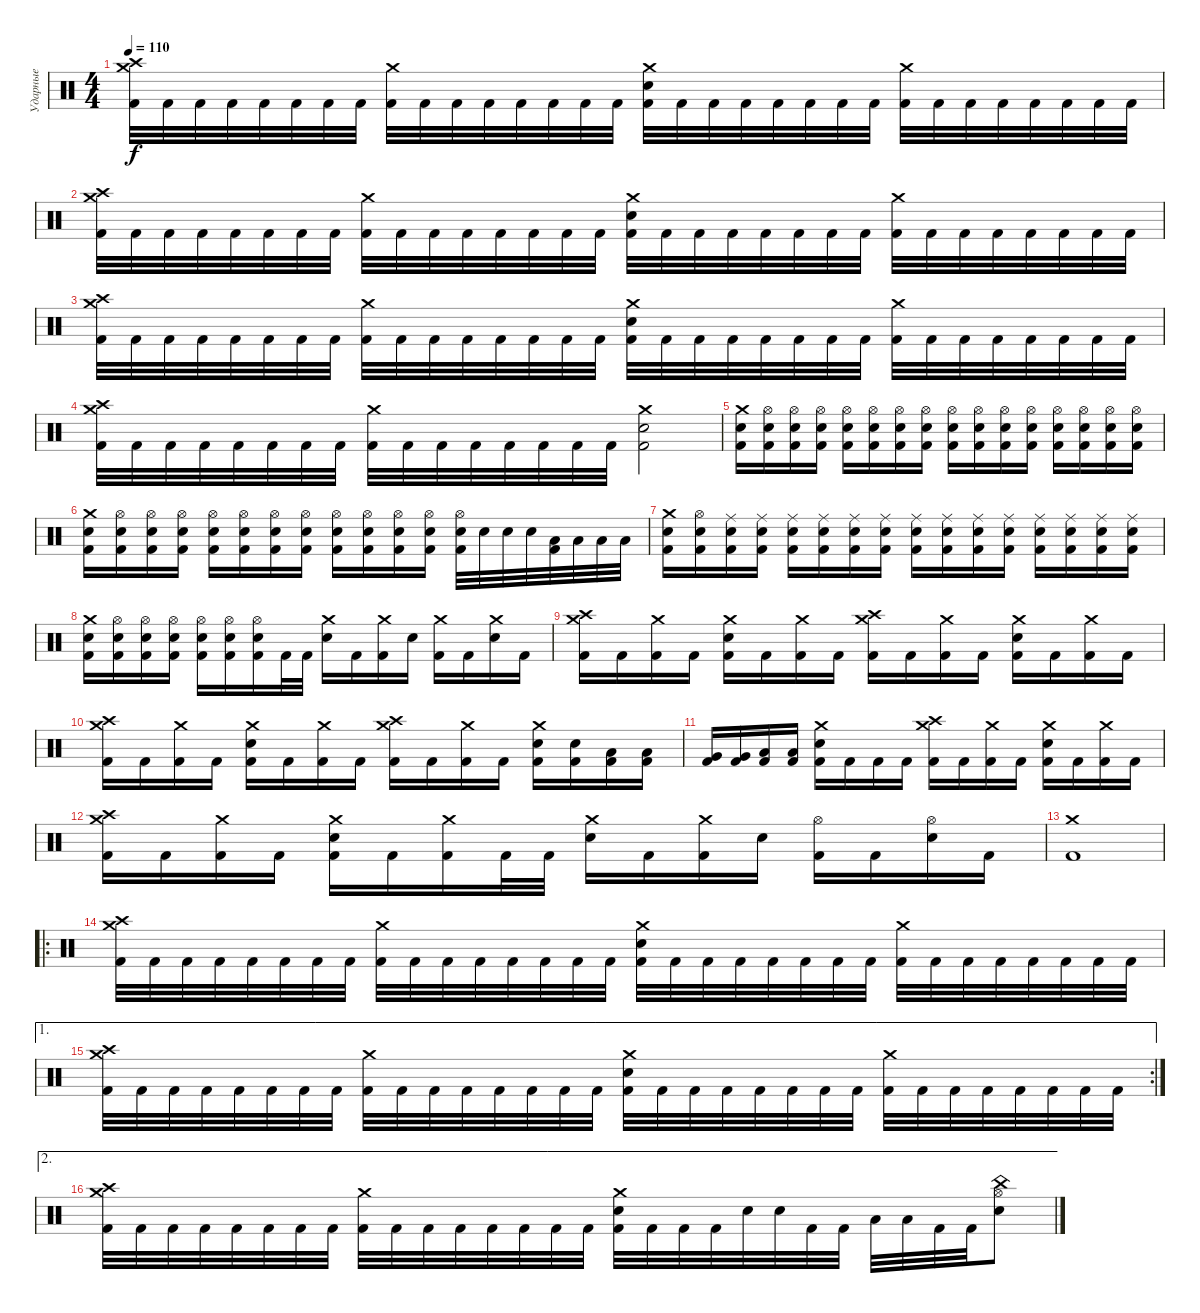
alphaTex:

\track ("Ударные" "Ударные") {instrument percussion}
\staff {score}
\articulation defaults
\ts (4 4)
\tempo 110
\clef neutral
\ks c
("Crash medium (hit)" "Crash high (hit)" "Kick (hit) 2").32{dy f} "Kick (hit) 2".32 "Kick (hit) 2".32 "Kick (hit) 2".32 "Kick (hit) 2".32 "Kick (hit) 2".32 "Kick (hit) 2".32 "Kick (hit) 2".32 ("Crash medium (hit)" "Kick (hit) 2").32 "Kick (hit) 2".32 "Kick (hit) 2".32 "Kick (hit) 2".32 "Kick (hit) 2".32 "Kick (hit) 2".32 "Kick (hit) 2".32 "Kick (hit) 2".32 ("Crash medium (hit)" "Electric Snare (hit)" "Kick (hit) 2").32 "Kick (hit) 2".32 "Kick (hit) 2".32 "Kick (hit) 2".32 "Kick (hit) 2".32 "Kick (hit) 2".32 "Kick (hit) 2".32 "Kick (hit) 2".32 ("Crash medium (hit)" "Kick (hit) 2").32 "Kick (hit) 2".32 "Kick (hit) 2".32 "Kick (hit) 2".32 "Kick (hit) 2".32 "Kick (hit) 2".32 "Kick (hit) 2".32 "Kick (hit) 2".32 |
("Crash medium (hit)" "Crash high (hit)" "Kick (hit) 2").32 "Kick (hit) 2".32 "Kick (hit) 2".32 "Kick (hit) 2".32 "Kick (hit) 2".32 "Kick (hit) 2".32 "Kick (hit) 2".32 "Kick (hit) 2".32 ("Crash medium (hit)" "Kick (hit) 2").32 "Kick (hit) 2".32 "Kick (hit) 2".32 "Kick (hit) 2".32 "Kick (hit) 2".32 "Kick (hit) 2".32 "Kick (hit) 2".32 "Kick (hit) 2".32 ("Crash medium (hit)" "Electric Snare (hit)" "Kick (hit) 2").32 "Kick (hit) 2".32 "Kick (hit) 2".32 "Kick (hit) 2".32 "Kick (hit) 2".32 "Kick (hit) 2".32 "Kick (hit) 2".32 "Kick (hit) 2".32 ("Crash medium (hit)" "Kick (hit) 2").32 "Kick (hit) 2".32 "Kick (hit) 2".32 "Kick (hit) 2".32 "Kick (hit) 2".32 "Kick (hit) 2".32 "Kick (hit) 2".32 "Kick (hit) 2".32 |
("Crash medium (hit)" "Crash high (hit)" "Kick (hit) 2").32 "Kick (hit) 2".32 "Kick (hit) 2".32 "Kick (hit) 2".32 "Kick (hit) 2".32 "Kick (hit) 2".32 "Kick (hit) 2".32 "Kick (hit) 2".32 ("Crash medium (hit)" "Kick (hit) 2").32 "Kick (hit) 2".32 "Kick (hit) 2".32 "Kick (hit) 2".32 "Kick (hit) 2".32 "Kick (hit) 2".32 "Kick (hit) 2".32 "Kick (hit) 2".32 ("Crash medium (hit)" "Electric Snare (hit)" "Kick (hit) 2").32 "Kick (hit) 2".32 "Kick (hit) 2".32 "Kick (hit) 2".32 "Kick (hit) 2".32 "Kick (hit) 2".32 "Kick (hit) 2".32 "Kick (hit) 2".32 ("Crash medium (hit)" "Kick (hit) 2").32 "Kick (hit) 2".32 "Kick (hit) 2".32 "Kick (hit) 2".32 "Kick (hit) 2".32 "Kick (hit) 2".32 "Kick (hit) 2".32 "Kick (hit) 2".32 |
("Crash medium (hit)" "Crash high (hit)" "Kick (hit) 2").32 "Kick (hit) 2".32 "Kick (hit) 2".32 "Kick (hit) 2".32 "Kick (hit) 2".32 "Kick (hit) 2".32 "Kick (hit) 2".32 "Kick (hit) 2".32 ("Crash medium (hit)" "Kick (hit) 2").32 "Kick (hit) 2".32 "Kick (hit) 2".32 "Kick (hit) 2".32 "Kick (hit) 2".32 "Kick (hit) 2".32 "Kick (hit) 2".32 "Kick (hit) 2".32 ("Crash medium (hit)" "Electric Snare (hit)" "Kick (hit) 2").2 |
("Crash medium (hit)" "Electric Snare (hit)" "Kick (hit) 2").16 ("Hi-Hat (open)" "Electric Snare (hit)" "Kick (hit) 2").16 ("Hi-Hat (open)" "Electric Snare (hit)" "Kick (hit) 2").16 ("Hi-Hat (open)" "Electric Snare (hit)" "Kick (hit) 2").16 ("Hi-Hat (open)" "Electric Snare (hit)" "Kick (hit) 2").16 ("Hi-Hat (open)" "Electric Snare (hit)" "Kick (hit) 2").16 ("Hi-Hat (open)" "Electric Snare (hit)" "Kick (hit) 2").16 ("Hi-Hat (open)" "Electric Snare (hit)" "Kick (hit) 2").16 ("Hi-Hat (open)" "Electric Snare (hit)" "Kick (hit) 2").16 ("Hi-Hat (open)" "Electric Snare (hit)" "Kick (hit) 2").16 ("Hi-Hat (open)" "Electric Snare (hit)" "Kick (hit) 2").16 ("Hi-Hat (open)" "Electric Snare (hit)" "Kick (hit) 2").16 ("Hi-Hat (open)" "Electric Snare (hit)" "Kick (hit) 2").16 ("Hi-Hat (open)" "Electric Snare (hit)" "Kick (hit) 2").16 ("Hi-Hat (open)" "Electric Snare (hit)" "Kick (hit) 2").16 ("Hi-Hat (open)" "Electric Snare (hit)" "Kick (hit) 2").16 |
("Crash medium (hit)" "Electric Snare (hit)" "Kick (hit) 2").16 ("Hi-Hat (open)" "Electric Snare (hit)" "Kick (hit) 2").16 ("Hi-Hat (open)" "Electric Snare (hit)" "Kick (hit) 2").16 ("Hi-Hat (open)" "Electric Snare (hit)" "Kick (hit) 2").16 ("Hi-Hat (open)" "Electric Snare (hit)" "Kick (hit) 2").16 ("Hi-Hat (open)" "Electric Snare (hit)" "Kick (hit) 2").16 ("Hi-Hat (open)" "Electric Snare (hit)" "Kick (hit) 2").16 ("Hi-Hat (open)" "Electric Snare (hit)" "Kick (hit) 2").16 ("Hi-Hat (open)" "Electric Snare (hit)" "Kick (hit) 2").16 ("Hi-Hat (open)" "Electric Snare (hit)" "Kick (hit) 2").16 ("Hi-Hat (open)" "Electric Snare (hit)" "Kick (hit) 2").16 ("Hi-Hat (open)" "Electric Snare (hit)" "Kick (hit) 2").16 ("Hi-Hat (open)" "Electric Snare (hit)" "Kick (hit) 2").32 "Electric Snare (hit)".32 "Electric Snare (hit)".32 "Electric Snare (hit)".32 ("Low Tom (hit)" "Kick (hit) 2").32 "Low Tom (hit)".32 "Low Tom (hit)".32 "Low Tom (hit)".32 |
("Crash medium (hit)" "Electric Snare (hit)" "Kick (hit) 2").16 ("Hi-Hat (open)" "Electric Snare (hit)" "Kick (hit) 2").16 ("Ride (middle)" "Electric Snare (hit)" "Kick (hit) 2").16 ("Ride (middle)" "Electric Snare (hit)" "Kick (hit) 2").16 ("Ride (middle)" "Electric Snare (hit)" "Kick (hit) 2").16 ("Ride (middle)" "Electric Snare (hit)" "Kick (hit) 2").16 ("Ride (middle)" "Electric Snare (hit)" "Kick (hit) 2").16 ("Ride (middle)" "Electric Snare (hit)" "Kick (hit) 2").16 ("Ride (middle)" "Electric Snare (hit)" "Kick (hit) 2").16 ("Ride (middle)" "Electric Snare (hit)" "Kick (hit) 2").16 ("Ride (middle)" "Electric Snare (hit)" "Kick (hit) 2").16 ("Ride (middle)" "Electric Snare (hit)" "Kick (hit) 2").16 ("Ride (middle)" "Electric Snare (hit)" "Kick (hit) 2").16 ("Ride (middle)" "Electric Snare (hit)" "Kick (hit) 2").16 ("Ride (middle)" "Electric Snare (hit)" "Kick (hit) 2").16 ("Ride (middle)" "Electric Snare (hit)" "Kick (hit) 2").16 |
("Crash medium (hit)" "Electric Snare (hit)" "Kick (hit) 2").16 ("Hi-Hat (open)" "Electric Snare (hit)" "Kick (hit) 2").16 ("Hi-Hat (open)" "Electric Snare (hit)" "Kick (hit) 2").16 ("Hi-Hat (open)" "Electric Snare (hit)" "Kick (hit) 2").16 ("Hi-Hat (open)" "Electric Snare (hit)" "Kick (hit) 2").16 ("Hi-Hat (open)" "Electric Snare (hit)" "Kick (hit) 2").16 ("Hi-Hat (open)" "Electric Snare (hit)" "Kick (hit) 2").16 "Kick (hit) 2".32 "Kick (hit) 2".32 ("Crash medium (hit)" "Electric Snare (hit)").16 "Kick (hit) 2".16 ("Crash medium (hit)" "Kick (hit) 2").16 "Electric Snare (hit)".16 ("Crash medium (hit)" "Kick (hit) 2").16 "Kick (hit) 2".16 ("Crash medium (hit)" "Electric Snare (hit)").16 "Kick (hit) 2".16 |
("Crash medium (hit)" "Crash high (hit)" "Kick (hit) 2").16 "Kick (hit) 2".16 ("Crash medium (hit)" "Kick (hit) 2").16 "Kick (hit) 2".16 ("Crash medium (hit)" "Electric Snare (hit)" "Kick (hit) 2").16 "Kick (hit) 2".16 ("Crash medium (hit)" "Kick (hit) 2").16 "Kick (hit) 2".16 ("Crash medium (hit)" "Crash high (hit)" "Kick (hit) 2").16 "Kick (hit) 2".16 ("Crash medium (hit)" "Kick (hit) 2").16 "Kick (hit) 2".16 ("Crash medium (hit)" "Electric Snare (hit)" "Kick (hit) 2").16 "Kick (hit) 2".16 ("Crash medium (hit)" "Kick (hit) 2").16 "Kick (hit) 2".16 |
("Crash medium (hit)" "Crash high (hit)" "Kick (hit) 2").16 "Kick (hit) 2".16 ("Crash medium (hit)" "Kick (hit) 2").16 "Kick (hit) 2".16 ("Crash medium (hit)" "Electric Snare (hit)" "Kick (hit) 2").16 "Kick (hit) 2".16 ("Crash medium (hit)" "Kick (hit) 2").16 "Kick (hit) 2".16 ("Crash medium (hit)" "Crash high (hit)" "Kick (hit) 2").16 "Kick (hit) 2".16 ("Crash medium (hit)" "Kick (hit) 2").16 "Kick (hit) 2".16 ("Crash medium (hit)" "Electric Snare (hit)" "Kick (hit) 2").16 ("Electric Snare (hit)" "Kick (hit) 2").16 ("Low Tom (hit)" "Kick (hit) 2").16 ("Low Tom (hit)" "Kick (hit) 2").16 |
("Very Low Tom (hit)" "Kick (hit) 2").16 ("Very Low Tom (hit)" "Kick (hit) 2").16 ("Low Floor Tom (hit)" "Kick (hit) 2").16 ("Low Floor Tom (hit)" "Kick (hit) 2").16 ("Crash medium (hit)" "Electric Snare (hit)" "Kick (hit) 2").16 "Kick (hit) 2".16 "Kick (hit) 2".16 "Kick (hit) 2".16 ("Crash medium (hit)" "Crash high (hit)" "Kick (hit) 2").16 "Kick (hit) 2".16 ("Crash medium (hit)" "Kick (hit) 2").16 "Kick (hit) 2".16 ("Crash medium (hit)" "Electric Snare (hit)" "Kick (hit) 2").16 "Kick (hit) 2".16 ("Crash medium (hit)" "Kick (hit) 2").16 "Kick (hit) 2".16 |
("Crash medium (hit)" "Crash high (hit)" "Kick (hit) 2").16 "Kick (hit) 2".16 ("Crash medium (hit)" "Kick (hit) 2").16 "Kick (hit) 2".16 ("Crash medium (hit)" "Electric Snare (hit)" "Kick (hit) 2").16 "Kick (hit) 2".16 ("Crash medium (hit)" "Kick (hit) 2").16 "Kick (hit) 2".32 "Kick (hit) 2".32 ("Crash medium (hit)" "Electric Snare (hit)").16 "Kick (hit) 2".16 ("Crash medium (hit)" "Kick (hit) 2").16 "Electric Snare (hit)".16 ("Hi-Hat (open)" "Kick (hit) 2").16 "Kick (hit) 2".16 ("Hi-Hat (open)" "Electric Snare (hit)").16 "Kick (hit) 2".16 |
("Kick (hit) 2" "Crash medium (hit)").1 |
\ro
("Crash medium (hit)" "Crash high (hit)" "Kick (hit) 2").32 "Kick (hit) 2".32 "Kick (hit) 2".32 "Kick (hit) 2".32 "Kick (hit) 2".32 "Kick (hit) 2".32 "Kick (hit) 2".32 "Kick (hit) 2".32 ("Crash medium (hit)" "Kick (hit) 2").32 "Kick (hit) 2".32 "Kick (hit) 2".32 "Kick (hit) 2".32 "Kick (hit) 2".32 "Kick (hit) 2".32 "Kick (hit) 2".32 "Kick (hit) 2".32 ("Crash medium (hit)" "Electric Snare (hit)" "Kick (hit) 2").32 "Kick (hit) 2".32 "Kick (hit) 2".32 "Kick (hit) 2".32 "Kick (hit) 2".32 "Kick (hit) 2".32 "Kick (hit) 2".32 "Kick (hit) 2".32 ("Crash medium (hit)" "Kick (hit) 2").32 "Kick (hit) 2".32 "Kick (hit) 2".32 "Kick (hit) 2".32 "Kick (hit) 2".32 "Kick (hit) 2".32 "Kick (hit) 2".32 "Kick (hit) 2".32 |
\ae 1
\rc 2
("Crash medium (hit)" "Crash high (hit)" "Kick (hit) 2").32 "Kick (hit) 2".32 "Kick (hit) 2".32 "Kick (hit) 2".32 "Kick (hit) 2".32 "Kick (hit) 2".32 "Kick (hit) 2".32 "Kick (hit) 2".32 ("Crash medium (hit)" "Kick (hit) 2").32 "Kick (hit) 2".32 "Kick (hit) 2".32 "Kick (hit) 2".32 "Kick (hit) 2".32 "Kick (hit) 2".32 "Kick (hit) 2".32 "Kick (hit) 2".32 ("Crash medium (hit)" "Electric Snare (hit)" "Kick (hit) 2").32 "Kick (hit) 2".32 "Kick (hit) 2".32 "Kick (hit) 2".32 "Kick (hit) 2".32 "Kick (hit) 2".32 "Kick (hit) 2".32 "Kick (hit) 2".32 ("Crash medium (hit)" "Kick (hit) 2").32 "Kick (hit) 2".32 "Kick (hit) 2".32 "Kick (hit) 2".32 "Kick (hit) 2".32 "Kick (hit) 2".32 "Kick (hit) 2".32 "Kick (hit) 2".32 |
\ae 2
("Crash medium (hit)" "Crash high (hit)" "Kick (hit) 2").32 "Kick (hit) 2".32 "Kick (hit) 2".32 "Kick (hit) 2".32 "Kick (hit) 2".32 "Kick (hit) 2".32 "Kick (hit) 2".32 "Kick (hit) 2".32 ("Crash medium (hit)" "Kick (hit) 2").32 "Kick (hit) 2".32 "Kick (hit) 2".32 "Kick (hit) 2".32 "Kick (hit) 2".32 "Kick (hit) 2".32 "Kick (hit) 2".32 "Kick (hit) 2".32 ("Crash medium (hit)" "Electric Snare (hit)" "Kick (hit) 2").32 "Kick (hit) 2".32 "Kick (hit) 2".32 "Kick (hit) 2".32 "Electric Snare (hit)".32 "Electric Snare (hit)".32 "Kick (hit) 2".32 "Kick (hit) 2".32 "Low Tom (hit)".32 "Low Tom (hit)".32 "Kick (hit) 2".32 "Kick (hit) 2".32 ("China (hit)" "Hi-Hat (open)" "Electric Snare (hit)").8
